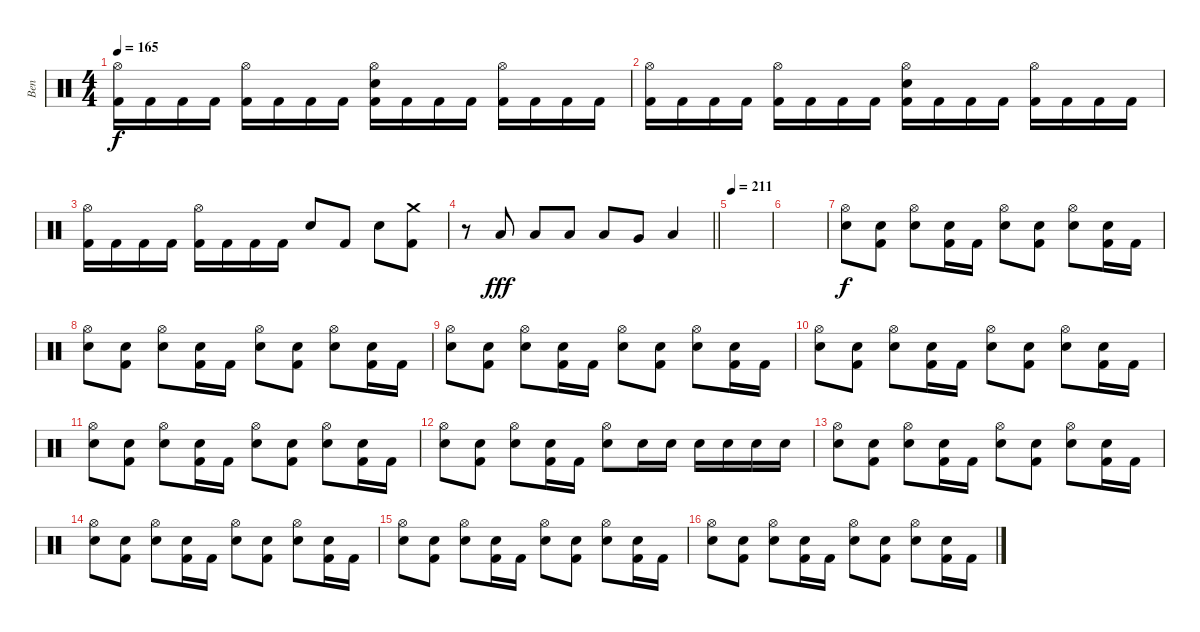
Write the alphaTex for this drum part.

\track ("Ben" "Ben") {instrument percussion}
\staff {score}
\articulation defaults
\ts (4 4)
\tempo 165
\clef neutral
\ks c
("Hi-Hat (open)" "Kick (hit) 2").16{dy f} "Kick (hit) 2".16 "Kick (hit) 2".16 "Kick (hit) 2".16 ("Hi-Hat (open)" "Kick (hit) 2").16 "Kick (hit) 2".16 "Kick (hit) 2".16 "Kick (hit) 2".16 ("Hi-Hat (open)" "Electric Snare (hit)" "Kick (hit) 2").16 "Kick (hit) 2".16 "Kick (hit) 2".16 "Kick (hit) 2".16 ("Hi-Hat (open)" "Kick (hit) 2").16 "Kick (hit) 2".16 "Kick (hit) 2".16 "Kick (hit) 2".16 |
("Hi-Hat (open)" "Kick (hit) 2").16 "Kick (hit) 2".16 "Kick (hit) 2".16 "Kick (hit) 2".16 ("Hi-Hat (open)" "Kick (hit) 2").16 "Kick (hit) 2".16 "Kick (hit) 2".16 "Kick (hit) 2".16 ("Hi-Hat (open)" "Electric Snare (hit)" "Kick (hit) 2").16 "Kick (hit) 2".16 "Kick (hit) 2".16 "Kick (hit) 2".16 ("Hi-Hat (open)" "Kick (hit) 2").16 "Kick (hit) 2".16 "Kick (hit) 2".16 "Kick (hit) 2".16 |
("Hi-Hat (open)" "Kick (hit) 2").16 "Kick (hit) 2".16 "Kick (hit) 2".16 "Kick (hit) 2".16 ("Hi-Hat (open)" "Kick (hit) 2").16 "Kick (hit) 2".16 "Kick (hit) 2".16 "Kick (hit) 2".16 "Electric Snare (hit)".8 "Kick (hit) 2".8 "Electric Snare (hit)".8 ("Crash medium (hit)" "Kick (hit) 2").8 |
\barLineRight lightlight
r.8 "Low Tom (hit)".8{dy fff} "Low Tom (hit)".8 "Low Tom (hit)".8 "Low Tom (hit)".8 "Very Low Tom (hit)".8 "Low Floor Tom (hit)".4 |
\tempo 211
|
|
("Hi-Hat (open)" "Electric Snare (hit)").8{dy f} ("Electric Snare (hit)" "Kick (hit) 2").8 ("Hi-Hat (open)" "Electric Snare (hit)").8 ("Electric Snare (hit)" "Kick (hit) 2").16 "Kick (hit) 2".16 ("Hi-Hat (open)" "Electric Snare (hit)").8 ("Electric Snare (hit)" "Kick (hit) 2").8 ("Hi-Hat (open)" "Electric Snare (hit)").8 ("Electric Snare (hit)" "Kick (hit) 2").16 "Kick (hit) 2".16 |
("Hi-Hat (open)" "Electric Snare (hit)").8 ("Electric Snare (hit)" "Kick (hit) 2").8 ("Hi-Hat (open)" "Electric Snare (hit)").8 ("Electric Snare (hit)" "Kick (hit) 2").16 "Kick (hit) 2".16 ("Hi-Hat (open)" "Electric Snare (hit)").8 ("Electric Snare (hit)" "Kick (hit) 2").8 ("Hi-Hat (open)" "Electric Snare (hit)").8 ("Electric Snare (hit)" "Kick (hit) 2").16 "Kick (hit) 2".16 |
("Hi-Hat (open)" "Electric Snare (hit)").8 ("Electric Snare (hit)" "Kick (hit) 2").8 ("Hi-Hat (open)" "Electric Snare (hit)").8 ("Electric Snare (hit)" "Kick (hit) 2").16 "Kick (hit) 2".16 ("Hi-Hat (open)" "Electric Snare (hit)").8 ("Electric Snare (hit)" "Kick (hit) 2").8 ("Hi-Hat (open)" "Electric Snare (hit)").8 ("Electric Snare (hit)" "Kick (hit) 2").16 "Kick (hit) 2".16 |
("Hi-Hat (open)" "Electric Snare (hit)").8 ("Electric Snare (hit)" "Kick (hit) 2").8 ("Hi-Hat (open)" "Electric Snare (hit)").8 ("Electric Snare (hit)" "Kick (hit) 2").16 "Kick (hit) 2".16 ("Hi-Hat (open)" "Electric Snare (hit)").8 ("Electric Snare (hit)" "Kick (hit) 2").8 ("Hi-Hat (open)" "Electric Snare (hit)").8 ("Electric Snare (hit)" "Kick (hit) 2").16 "Kick (hit) 2".16 |
("Hi-Hat (open)" "Electric Snare (hit)").8 ("Electric Snare (hit)" "Kick (hit) 2").8 ("Hi-Hat (open)" "Electric Snare (hit)").8 ("Electric Snare (hit)" "Kick (hit) 2").16 "Kick (hit) 2".16 ("Hi-Hat (open)" "Electric Snare (hit)").8 ("Electric Snare (hit)" "Kick (hit) 2").8 ("Hi-Hat (open)" "Electric Snare (hit)").8 ("Electric Snare (hit)" "Kick (hit) 2").16 "Kick (hit) 2".16 |
("Hi-Hat (open)" "Electric Snare (hit)").8 ("Electric Snare (hit)" "Kick (hit) 2").8 ("Hi-Hat (open)" "Electric Snare (hit)").8 ("Electric Snare (hit)" "Kick (hit) 2").16 "Kick (hit) 2".16 ("Hi-Hat (open)" "Electric Snare (hit)").8 "Electric Snare (hit)".16 "Electric Snare (hit)".16 "Electric Snare (hit)".16 "Electric Snare (hit)".16 "Electric Snare (hit)".16 "Electric Snare (hit)".16 |
("Hi-Hat (open)" "Electric Snare (hit)").8 ("Electric Snare (hit)" "Kick (hit) 2").8 ("Hi-Hat (open)" "Electric Snare (hit)").8 ("Electric Snare (hit)" "Kick (hit) 2").16 "Kick (hit) 2".16 ("Hi-Hat (open)" "Electric Snare (hit)").8 ("Electric Snare (hit)" "Kick (hit) 2").8 ("Hi-Hat (open)" "Electric Snare (hit)").8 ("Electric Snare (hit)" "Kick (hit) 2").16 "Kick (hit) 2".16 |
("Hi-Hat (open)" "Electric Snare (hit)").8 ("Electric Snare (hit)" "Kick (hit) 2").8 ("Hi-Hat (open)" "Electric Snare (hit)").8 ("Electric Snare (hit)" "Kick (hit) 2").16 "Kick (hit) 2".16 ("Hi-Hat (open)" "Electric Snare (hit)").8 ("Electric Snare (hit)" "Kick (hit) 2").8 ("Hi-Hat (open)" "Electric Snare (hit)").8 ("Electric Snare (hit)" "Kick (hit) 2").16 "Kick (hit) 2".16 |
("Hi-Hat (open)" "Electric Snare (hit)").8 ("Electric Snare (hit)" "Kick (hit) 2").8 ("Hi-Hat (open)" "Electric Snare (hit)").8 ("Electric Snare (hit)" "Kick (hit) 2").16 "Kick (hit) 2".16 ("Hi-Hat (open)" "Electric Snare (hit)").8 ("Electric Snare (hit)" "Kick (hit) 2").8 ("Hi-Hat (open)" "Electric Snare (hit)").8 ("Electric Snare (hit)" "Kick (hit) 2").16 "Kick (hit) 2".16 |
("Hi-Hat (open)" "Electric Snare (hit)").8 ("Electric Snare (hit)" "Kick (hit) 2").8 ("Hi-Hat (open)" "Electric Snare (hit)").8 ("Electric Snare (hit)" "Kick (hit) 2").16 "Kick (hit) 2".16 ("Hi-Hat (open)" "Electric Snare (hit)").8 ("Electric Snare (hit)" "Kick (hit) 2").8 ("Hi-Hat (open)" "Electric Snare (hit)").8 ("Electric Snare (hit)" "Kick (hit) 2").16 "Kick (hit) 2".16
